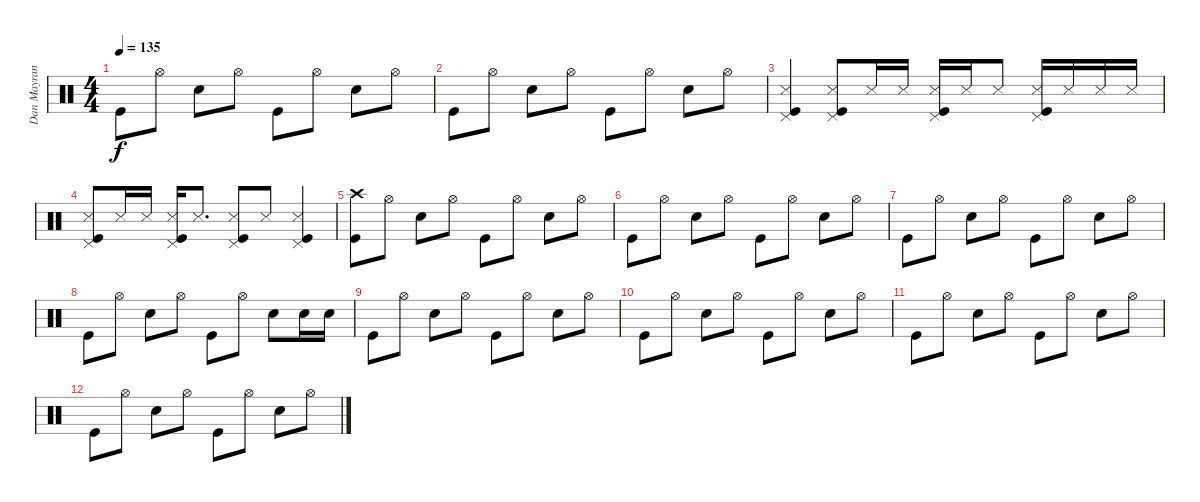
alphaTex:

\track ("Dan Mayrand - Drum" "Dan Mayran") {instrument percussion}
\staff {score}
\articulation defaults
\ts (4 4)
\tempo 135
\clef neutral
\ks c "Kick (hit)".8{dy f} "Hi-Hat (open)".8 "Snare (hit) 2".8 "Hi-Hat (open)".8 "Kick (hit)".8 "Hi-Hat (open)".8 "Snare (hit) 2".8 "Hi-Hat (open)".8
|
"Kick (hit)".8 "Hi-Hat (open)".8 "Snare (hit) 2".8 "Hi-Hat (open)".8 "Kick (hit)".8 "Hi-Hat (open)".8 "Snare (hit) 2".8 "Hi-Hat (open)".8 |
("Pedal Hi-Hat (hit)" "Snare (side stick) 3" "Kick (hit)").4 ("Pedal Hi-Hat (hit)" "Snare (side stick) 3" "Kick (hit)").8 "Snare (side stick) 3".16 "Snare (side stick) 3".16 ("Pedal Hi-Hat (hit)" "Snare (side stick) 3" "Kick (hit)").16 "Snare (side stick) 3".16 "Snare (side stick) 3".8 ("Pedal Hi-Hat (hit)" "Snare (side stick) 3" "Kick (hit)").16 "Snare (side stick) 3".16 "Snare (side stick) 3".16 "Snare (side stick) 3".16 |
("Pedal Hi-Hat (hit)" "Snare (side stick) 3" "Kick (hit)").8 "Snare (side stick) 3".16 "Snare (side stick) 3".16 ("Pedal Hi-Hat (hit)" "Snare (side stick) 3" "Kick (hit)").16 "Snare (side stick) 3".8{d} ("Pedal Hi-Hat (hit)" "Snare (side stick) 3" "Kick (hit)").8 "Snare (side stick) 3".8 ("Pedal Hi-Hat (hit)" "Snare (side stick) 3" "Kick (hit)").4 |
("Crash high (hit)" "Kick (hit)").8 "Hi-Hat (open)".8 "Snare (hit) 2".8 "Hi-Hat (open)".8 "Kick (hit)".8 "Hi-Hat (open)".8 "Snare (hit) 2".8 "Hi-Hat (open)".8 |
"Kick (hit)".8 "Hi-Hat (open)".8 "Snare (hit) 2".8 "Hi-Hat (open)".8 "Kick (hit)".8 "Hi-Hat (open)".8 "Snare (hit) 2".8 "Hi-Hat (open)".8 |
"Kick (hit)".8 "Hi-Hat (open)".8 "Snare (hit) 2".8 "Hi-Hat (open)".8 "Kick (hit)".8 "Hi-Hat (open)".8 "Snare (hit) 2".8 "Hi-Hat (open)".8 |
"Kick (hit)".8 "Hi-Hat (open)".8 "Snare (hit) 2".8 "Hi-Hat (open)".8 "Kick (hit)".8 "Hi-Hat (open)".8 "Snare (hit) 2".8 "Snare (hit) 2".16 "Snare (hit) 2".16 |
"Kick (hit)".8 "Hi-Hat (open)".8 "Snare (hit) 2".8 "Hi-Hat (open)".8 "Kick (hit)".8 "Hi-Hat (open)".8 "Snare (hit) 2".8 "Hi-Hat (open)".8 |
"Kick (hit)".8 "Hi-Hat (open)".8 "Snare (hit) 2".8 "Hi-Hat (open)".8 "Kick (hit)".8 "Hi-Hat (open)".8 "Snare (hit) 2".8 "Hi-Hat (open)".8 |
"Kick (hit)".8 "Hi-Hat (open)".8 "Snare (hit) 2".8 "Hi-Hat (open)".8 "Kick (hit)".8 "Hi-Hat (open)".8 "Snare (hit) 2".8 "Hi-Hat (open)".8 |
"Kick (hit)".8 "Hi-Hat (open)".8 "Snare (hit) 2".8 "Hi-Hat (open)".8 "Kick (hit)".8 "Hi-Hat (open)".8 "Snare (hit) 2".8 "Hi-Hat (open)".8
